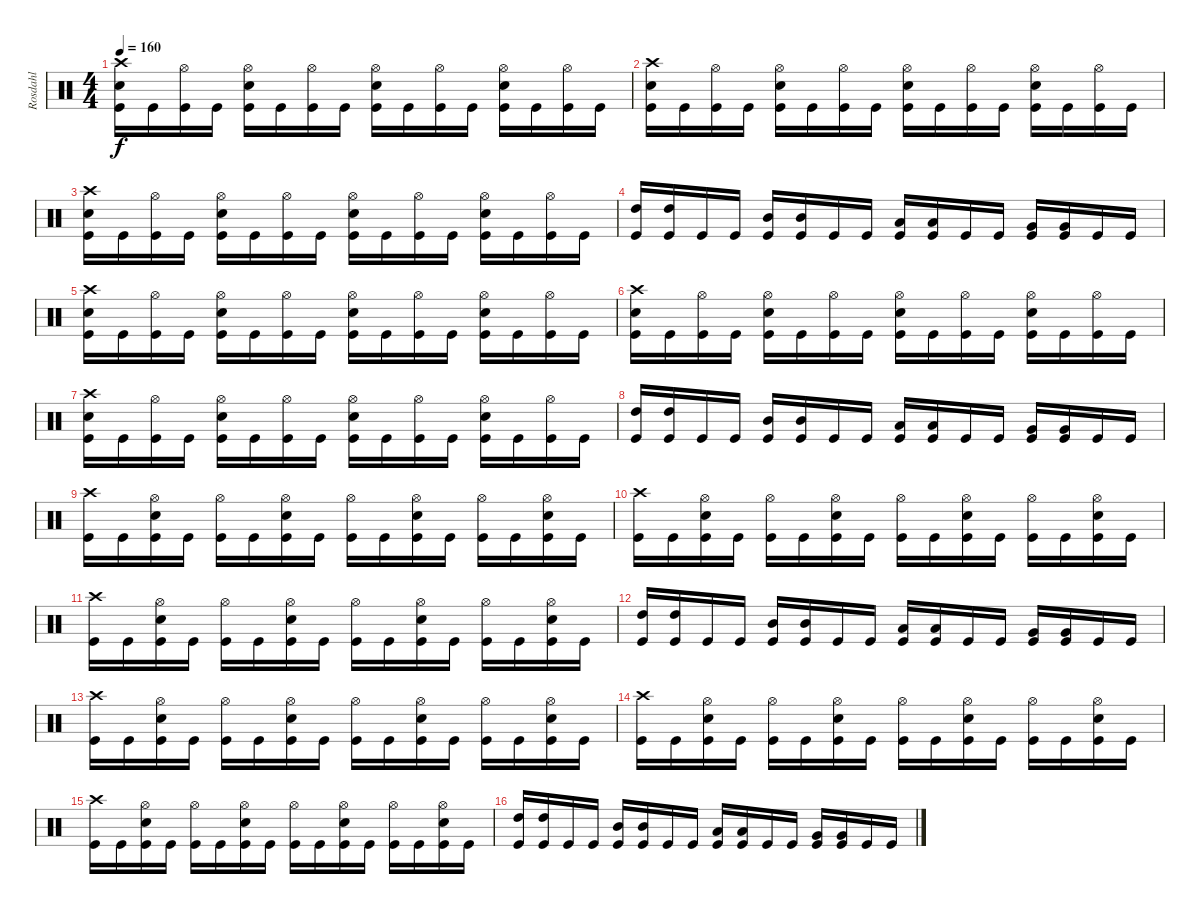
\track ("Rosdahl" "Rosdahl") {instrument percussion}
\staff {score}
\articulation defaults
\ts (4 4)
\tempo 160
\clef neutral
\ks c
("Crash high (hit)" "Electric Snare (hit)" "Kick (hit)").16{dy f} "Kick (hit)".16 ("Hi-Hat (open)" "Kick (hit)").16 "Kick (hit)".16 ("Hi-Hat (open)" "Electric Snare (hit)" "Kick (hit)").16 "Kick (hit)".16 ("Hi-Hat (open)" "Kick (hit)").16 "Kick (hit)".16 ("Hi-Hat (open)" "Electric Snare (hit)" "Kick (hit)").16 "Kick (hit)".16 ("Hi-Hat (open)" "Kick (hit)").16 "Kick (hit)".16 ("Hi-Hat (open)" "Electric Snare (hit)" "Kick (hit)").16 "Kick (hit)".16 ("Hi-Hat (open)" "Kick (hit)").16 "Kick (hit)".16 |
("Crash high (hit)" "Electric Snare (hit)" "Kick (hit)").16 "Kick (hit)".16 ("Hi-Hat (open)" "Kick (hit)").16 "Kick (hit)".16 ("Hi-Hat (open)" "Electric Snare (hit)" "Kick (hit)").16 "Kick (hit)".16 ("Hi-Hat (open)" "Kick (hit)").16 "Kick (hit)".16 ("Hi-Hat (open)" "Electric Snare (hit)" "Kick (hit)").16 "Kick (hit)".16 ("Hi-Hat (open)" "Kick (hit)").16 "Kick (hit)".16 ("Hi-Hat (open)" "Electric Snare (hit)" "Kick (hit)").16 "Kick (hit)".16 ("Hi-Hat (open)" "Kick (hit)").16 "Kick (hit)".16 |
("Crash high (hit)" "Electric Snare (hit)" "Kick (hit)").16 "Kick (hit)".16 ("Hi-Hat (open)" "Kick (hit)").16 "Kick (hit)".16 ("Hi-Hat (open)" "Electric Snare (hit)" "Kick (hit)").16 "Kick (hit)".16 ("Hi-Hat (open)" "Kick (hit)").16 "Kick (hit)".16 ("Hi-Hat (open)" "Electric Snare (hit)" "Kick (hit)").16 "Kick (hit)".16 ("Hi-Hat (open)" "Kick (hit)").16 "Kick (hit)".16 ("Hi-Hat (open)" "Electric Snare (hit)" "Kick (hit)").16 "Kick (hit)".16 ("Hi-Hat (open)" "Kick (hit)").16 "Kick (hit)".16 |
("High Tom (hit)" "Kick (hit)").16 ("High Tom (hit)" "Kick (hit)").16 "Kick (hit)".16 "Kick (hit)".16 ("Mid Tom (hit)" "Kick (hit)").16 ("Mid Tom (hit)" "Kick (hit)").16 "Kick (hit)".16 "Kick (hit)".16 ("Low Tom (hit)" "Kick (hit)").16 ("Low Tom (hit)" "Kick (hit)").16 "Kick (hit)".16 "Kick (hit)".16 ("Very Low Tom (hit)" "Kick (hit)").16 ("Very Low Tom (hit)" "Kick (hit)").16 "Kick (hit)".16 "Kick (hit)".16 |
("Crash high (hit)" "Electric Snare (hit)" "Kick (hit)").16 "Kick (hit)".16 ("Hi-Hat (open)" "Kick (hit)").16 "Kick (hit)".16 ("Hi-Hat (open)" "Electric Snare (hit)" "Kick (hit)").16 "Kick (hit)".16 ("Hi-Hat (open)" "Kick (hit)").16 "Kick (hit)".16 ("Hi-Hat (open)" "Electric Snare (hit)" "Kick (hit)").16 "Kick (hit)".16 ("Hi-Hat (open)" "Kick (hit)").16 "Kick (hit)".16 ("Hi-Hat (open)" "Electric Snare (hit)" "Kick (hit)").16 "Kick (hit)".16 ("Hi-Hat (open)" "Kick (hit)").16 "Kick (hit)".16 |
("Crash high (hit)" "Electric Snare (hit)" "Kick (hit)").16 "Kick (hit)".16 ("Hi-Hat (open)" "Kick (hit)").16 "Kick (hit)".16 ("Hi-Hat (open)" "Electric Snare (hit)" "Kick (hit)").16 "Kick (hit)".16 ("Hi-Hat (open)" "Kick (hit)").16 "Kick (hit)".16 ("Hi-Hat (open)" "Electric Snare (hit)" "Kick (hit)").16 "Kick (hit)".16 ("Hi-Hat (open)" "Kick (hit)").16 "Kick (hit)".16 ("Hi-Hat (open)" "Electric Snare (hit)" "Kick (hit)").16 "Kick (hit)".16 ("Hi-Hat (open)" "Kick (hit)").16 "Kick (hit)".16 |
("Crash high (hit)" "Electric Snare (hit)" "Kick (hit)").16 "Kick (hit)".16 ("Hi-Hat (open)" "Kick (hit)").16 "Kick (hit)".16 ("Hi-Hat (open)" "Electric Snare (hit)" "Kick (hit)").16 "Kick (hit)".16 ("Hi-Hat (open)" "Kick (hit)").16 "Kick (hit)".16 ("Hi-Hat (open)" "Electric Snare (hit)" "Kick (hit)").16 "Kick (hit)".16 ("Hi-Hat (open)" "Kick (hit)").16 "Kick (hit)".16 ("Hi-Hat (open)" "Electric Snare (hit)" "Kick (hit)").16 "Kick (hit)".16 ("Hi-Hat (open)" "Kick (hit)").16 "Kick (hit)".16 |
("High Tom (hit)" "Kick (hit)").16 ("High Tom (hit)" "Kick (hit)").16 "Kick (hit)".16 "Kick (hit)".16 ("Mid Tom (hit)" "Kick (hit)").16 ("Mid Tom (hit)" "Kick (hit)").16 "Kick (hit)".16 "Kick (hit)".16 ("Low Tom (hit)" "Kick (hit)").16 ("Low Tom (hit)" "Kick (hit)").16 "Kick (hit)".16 "Kick (hit)".16 ("Very Low Tom (hit)" "Kick (hit)").16 ("Very Low Tom (hit)" "Kick (hit)").16 "Kick (hit)".16 "Kick (hit)".16 |
("Crash high (hit)" "Kick (hit)").16 "Kick (hit)".16 ("Hi-Hat (open)" "Electric Snare (hit)" "Kick (hit)").16 "Kick (hit)".16 ("Hi-Hat (open)" "Kick (hit)").16 "Kick (hit)".16 ("Hi-Hat (open)" "Electric Snare (hit)" "Kick (hit)").16 "Kick (hit)".16 ("Hi-Hat (open)" "Kick (hit)").16 "Kick (hit)".16 ("Hi-Hat (open)" "Electric Snare (hit)" "Kick (hit)").16 "Kick (hit)".16 ("Hi-Hat (open)" "Kick (hit)").16 "Kick (hit)".16 ("Hi-Hat (open)" "Electric Snare (hit)" "Kick (hit)").16 "Kick (hit)".16 |
("Crash high (hit)" "Kick (hit)").16 "Kick (hit)".16 ("Hi-Hat (open)" "Electric Snare (hit)" "Kick (hit)").16 "Kick (hit)".16 ("Hi-Hat (open)" "Kick (hit)").16 "Kick (hit)".16 ("Hi-Hat (open)" "Electric Snare (hit)" "Kick (hit)").16 "Kick (hit)".16 ("Hi-Hat (open)" "Kick (hit)").16 "Kick (hit)".16 ("Hi-Hat (open)" "Electric Snare (hit)" "Kick (hit)").16 "Kick (hit)".16 ("Hi-Hat (open)" "Kick (hit)").16 "Kick (hit)".16 ("Hi-Hat (open)" "Electric Snare (hit)" "Kick (hit)").16 "Kick (hit)".16 |
("Crash high (hit)" "Kick (hit)").16 "Kick (hit)".16 ("Hi-Hat (open)" "Electric Snare (hit)" "Kick (hit)").16 "Kick (hit)".16 ("Hi-Hat (open)" "Kick (hit)").16 "Kick (hit)".16 ("Hi-Hat (open)" "Electric Snare (hit)" "Kick (hit)").16 "Kick (hit)".16 ("Hi-Hat (open)" "Kick (hit)").16 "Kick (hit)".16 ("Hi-Hat (open)" "Electric Snare (hit)" "Kick (hit)").16 "Kick (hit)".16 ("Hi-Hat (open)" "Kick (hit)").16 "Kick (hit)".16 ("Hi-Hat (open)" "Electric Snare (hit)" "Kick (hit)").16 "Kick (hit)".16 |
("High Tom (hit)" "Kick (hit)").16 ("High Tom (hit)" "Kick (hit)").16 "Kick (hit)".16 "Kick (hit)".16 ("Mid Tom (hit)" "Kick (hit)").16 ("Mid Tom (hit)" "Kick (hit)").16 "Kick (hit)".16 "Kick (hit)".16 ("Low Tom (hit)" "Kick (hit)").16 ("Low Tom (hit)" "Kick (hit)").16 "Kick (hit)".16 "Kick (hit)".16 ("Very Low Tom (hit)" "Kick (hit)").16 ("Very Low Tom (hit)" "Kick (hit)").16 "Kick (hit)".16 "Kick (hit)".16 |
("Crash high (hit)" "Kick (hit)").16 "Kick (hit)".16 ("Hi-Hat (open)" "Electric Snare (hit)" "Kick (hit)").16 "Kick (hit)".16 ("Hi-Hat (open)" "Kick (hit)").16 "Kick (hit)".16 ("Hi-Hat (open)" "Electric Snare (hit)" "Kick (hit)").16 "Kick (hit)".16 ("Hi-Hat (open)" "Kick (hit)").16 "Kick (hit)".16 ("Hi-Hat (open)" "Electric Snare (hit)" "Kick (hit)").16 "Kick (hit)".16 ("Hi-Hat (open)" "Kick (hit)").16 "Kick (hit)".16 ("Hi-Hat (open)" "Electric Snare (hit)" "Kick (hit)").16 "Kick (hit)".16 |
("Crash high (hit)" "Kick (hit)").16 "Kick (hit)".16 ("Hi-Hat (open)" "Electric Snare (hit)" "Kick (hit)").16 "Kick (hit)".16 ("Hi-Hat (open)" "Kick (hit)").16 "Kick (hit)".16 ("Hi-Hat (open)" "Electric Snare (hit)" "Kick (hit)").16 "Kick (hit)".16 ("Hi-Hat (open)" "Kick (hit)").16 "Kick (hit)".16 ("Hi-Hat (open)" "Electric Snare (hit)" "Kick (hit)").16 "Kick (hit)".16 ("Hi-Hat (open)" "Kick (hit)").16 "Kick (hit)".16 ("Hi-Hat (open)" "Electric Snare (hit)" "Kick (hit)").16 "Kick (hit)".16 |
("Crash high (hit)" "Kick (hit)").16 "Kick (hit)".16 ("Hi-Hat (open)" "Electric Snare (hit)" "Kick (hit)").16 "Kick (hit)".16 ("Hi-Hat (open)" "Kick (hit)").16 "Kick (hit)".16 ("Hi-Hat (open)" "Electric Snare (hit)" "Kick (hit)").16 "Kick (hit)".16 ("Hi-Hat (open)" "Kick (hit)").16 "Kick (hit)".16 ("Hi-Hat (open)" "Electric Snare (hit)" "Kick (hit)").16 "Kick (hit)".16 ("Hi-Hat (open)" "Kick (hit)").16 "Kick (hit)".16 ("Hi-Hat (open)" "Electric Snare (hit)" "Kick (hit)").16 "Kick (hit)".16 |
("High Tom (hit)" "Kick (hit)").16 ("High Tom (hit)" "Kick (hit)").16 "Kick (hit)".16 "Kick (hit)".16 ("Mid Tom (hit)" "Kick (hit)").16 ("Mid Tom (hit)" "Kick (hit)").16 "Kick (hit)".16 "Kick (hit)".16 ("Low Tom (hit)" "Kick (hit)").16 ("Low Tom (hit)" "Kick (hit)").16 "Kick (hit)".16 "Kick (hit)".16 ("Very Low Tom (hit)" "Kick (hit)").16 ("Very Low Tom (hit)" "Kick (hit)").16 "Kick (hit)".16 "Kick (hit)".16
